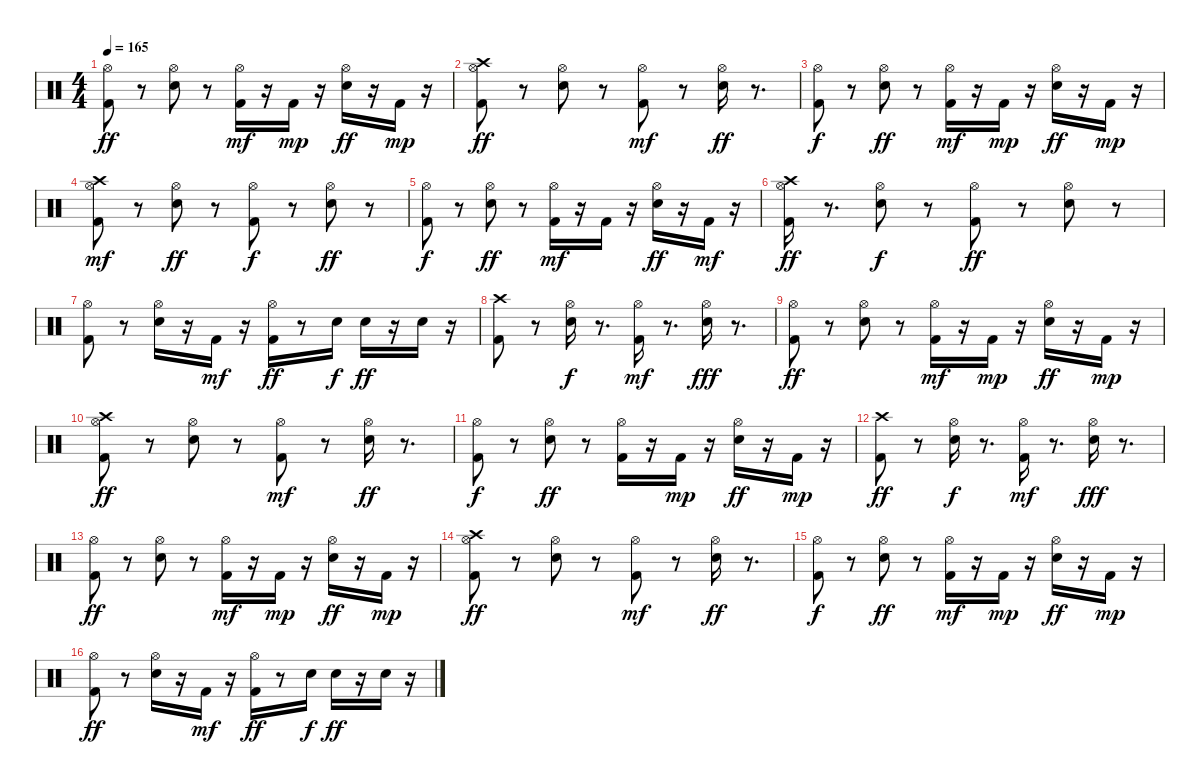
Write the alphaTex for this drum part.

\track "" {instrument percussion}
\staff {score}
\articulation defaults
\ts (4 4)
\tempo 165
\clef neutral
\ks c
("Kick (hit) 2" "Hi-Hat (open)").8{dy ff} r.8 ("Electric Snare (hit)" "Hi-Hat (open)").8 r.8 ("Hi-Hat (open)" "Kick (hit) 2").16{dy mf} r.16 "Kick (hit) 2".16{dy mp} r.16 ("Hi-Hat (open)" "Electric Snare (hit)").16{dy ff} r.16 "Kick (hit) 2".16{dy mp} r.16 |
("Hi-Hat (open)" "Crash high (hit)" "Kick (hit) 2").8{dy ff} r.8 ("Hi-Hat (open)" "Electric Snare (hit)").8 r.8 ("Hi-Hat (open)" "Kick (hit) 2").8{dy mf} r.8 ("Electric Snare (hit)" "Hi-Hat (open)").16{dy ff} r.8{d} |
("Kick (hit) 2" "Hi-Hat (open)").8{dy f} r.8 ("Hi-Hat (open)" "Electric Snare (hit)").8{dy ff} r.8 ("Hi-Hat (open)" "Kick (hit) 2").16{dy mf} r.16 "Kick (hit) 2".16{dy mp} r.16 ("Hi-Hat (open)" "Electric Snare (hit)").16{dy ff} r.16 "Kick (hit) 2".16{dy mp} r.16 |
("Hi-Hat (open)" "Kick (hit) 2" "Crash high (hit)").8{dy mf} r.8 ("Hi-Hat (open)" "Electric Snare (hit)").8{dy ff} r.8 ("Kick (hit) 2" "Hi-Hat (open)").8{dy f} r.8 ("Electric Snare (hit)" "Hi-Hat (open)").8{dy ff} r.8 |
("Kick (hit) 2" "Hi-Hat (open)").8{dy f} r.8 ("Hi-Hat (open)" "Electric Snare (hit)").8{dy ff} r.8 ("Kick (hit) 2" "Hi-Hat (open)").16{dy mf} r.16 "Kick (hit) 2".16 r.16 ("Electric Snare (hit)" "Hi-Hat (open)").16{dy ff} r.16 "Kick (hit) 2".16{dy mf} r.16 |
("Crash high (hit)" "Kick (hit) 2" "Hi-Hat (open)").16{dy ff} r.8{d} ("Electric Snare (hit)" "Hi-Hat (open)").8{dy f} r.8 ("Kick (hit) 2" "Hi-Hat (open)").8{dy ff} r.8 ("Hi-Hat (open)" "Electric Snare (hit)").8 r.8 |
("Hi-Hat (open)" "Kick (hit) 2").8 r.8 ("Electric Snare (hit)" "Hi-Hat (open)").16 r.16 "Kick (hit) 2".16{dy mf} r.16 ("Kick (hit) 2" "Hi-Hat (open)").16{dy ff} r.8 "Electric Snare (hit)".16{dy f} "Electric Snare (hit)".16{dy ff} r.16 "Electric Snare (hit)".16 r.16 |
("Crash high (hit)" "Kick (hit) 2").8 r.8 ("Electric Snare (hit)" "Hi-Hat (open)").16{dy f} r.8{d} ("Hi-Hat (open)" "Kick (hit) 2").16{dy mf} r.8{d} ("Electric Snare (hit)" "Hi-Hat (open)").16{dy fff} r.8{d} |
("Hi-Hat (open)" "Kick (hit) 2").8{dy ff} r.8 ("Hi-Hat (open)" "Electric Snare (hit)").8 r.8 ("Kick (hit) 2" "Hi-Hat (open)").16{dy mf} r.16 "Kick (hit) 2".16{dy mp} r.16 ("Electric Snare (hit)" "Hi-Hat (open)").16{dy ff} r.16 "Kick (hit) 2".16{dy mp} r.16 |
("Hi-Hat (open)" "Crash high (hit)" "Kick (hit) 2").8{dy ff} r.8 ("Hi-Hat (open)" "Electric Snare (hit)").8 r.8 ("Kick (hit) 2" "Hi-Hat (open)").8{dy mf} r.8 ("Hi-Hat (open)" "Electric Snare (hit)").16{dy ff} r.8{d} |
("Hi-Hat (open)" "Kick (hit) 2").8{dy f} r.8 ("Electric Snare (hit)" "Hi-Hat (open)").8{dy ff} r.8 ("Kick (hit) 2" "Hi-Hat (open)").16 r.16 "Kick (hit) 2".16{dy mp} r.16 ("Electric Snare (hit)" "Hi-Hat (open)").16{dy ff} r.16 "Kick (hit) 2".16{dy mp} r.16 |
("Crash high (hit)" "Kick (hit) 2").8{dy ff} r.8 ("Electric Snare (hit)" "Hi-Hat (open)").16{dy f} r.8{d} ("Hi-Hat (open)" "Kick (hit) 2").16{dy mf} r.8{d} ("Electric Snare (hit)" "Hi-Hat (open)").16{dy fff} r.8{d} |
("Kick (hit) 2" "Hi-Hat (open)").8{dy ff} r.8 ("Hi-Hat (open)" "Electric Snare (hit)").8 r.8 ("Hi-Hat (open)" "Kick (hit) 2").16{dy mf} r.16 "Kick (hit) 2".16{dy mp} r.16 ("Hi-Hat (open)" "Electric Snare (hit)").16{dy ff} r.16 "Kick (hit) 2".16{dy mp} r.16 |
("Hi-Hat (open)" "Kick (hit) 2" "Crash high (hit)").8{dy ff} r.8 ("Hi-Hat (open)" "Electric Snare (hit)").8 r.8 ("Kick (hit) 2" "Hi-Hat (open)").8{dy mf} r.8 ("Electric Snare (hit)" "Hi-Hat (open)").16{dy ff} r.8{d} |
("Hi-Hat (open)" "Kick (hit) 2").8{dy f} r.8 ("Electric Snare (hit)" "Hi-Hat (open)").8{dy ff} r.8 ("Hi-Hat (open)" "Kick (hit) 2").16{dy mf} r.16 "Kick (hit) 2".16{dy mp} r.16 ("Hi-Hat (open)" "Electric Snare (hit)").16{dy ff} r.16 "Kick (hit) 2".16{dy mp} r.16 |
("Hi-Hat (open)" "Kick (hit) 2").8{dy ff} r.8 ("Electric Snare (hit)" "Hi-Hat (open)").16 r.16 "Kick (hit) 2".16{dy mf} r.16 ("Kick (hit) 2" "Hi-Hat (open)").16{dy ff} r.8 "Electric Snare (hit)".16{dy f} "Electric Snare (hit)".16{dy ff} r.16 "Electric Snare (hit)".16 r.16
